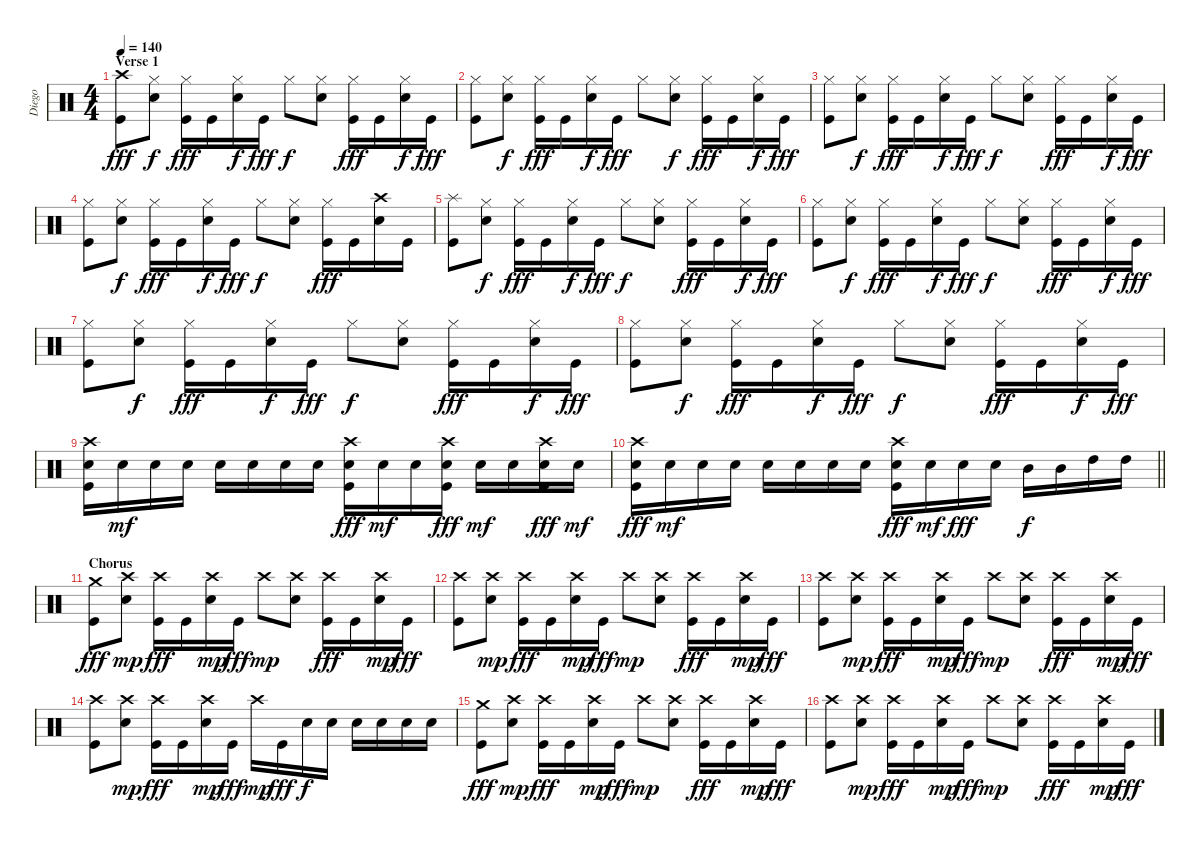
\track ("Diego" "Diego") {instrument percussion}
\staff {score}
\articulation defaults
\ts (4 4)
\section ("" "Verse 1")
\tempo 140
\clef neutral
\ks c
("Crash high (hit)" "Kick (hit)").8{dy fff} ("Hi-Hat (closed)" "Snare (hit) 2").8{dy f} ("Hi-Hat (closed)" "Kick (hit)").16{dy fff} "Kick (hit)".16 ("Hi-Hat (closed)" "Snare (hit) 2").16{dy f} "Kick (hit)".16{dy fff} "Hi-Hat (closed)".8{dy f} ("Hi-Hat (closed)" "Snare (hit) 2").8 ("Hi-Hat (closed)" "Kick (hit)").16{dy fff} "Kick (hit)".16 ("Hi-Hat (closed)" "Snare (hit) 2").16{dy f} "Kick (hit)".16{dy fff} |
("Hi-Hat (closed)" "Kick (hit)").8 ("Hi-Hat (closed)" "Snare (hit) 2").8{dy f} ("Hi-Hat (closed)" "Kick (hit)").16{dy fff} "Kick (hit)".16 ("Hi-Hat (closed)" "Snare (hit) 2").16{dy f} "Kick (hit)".16{dy fff} "Hi-Hat (closed)".8 ("Hi-Hat (closed)" "Snare (hit) 2").8{dy f} ("Hi-Hat (closed)" "Kick (hit)").16{dy fff} "Kick (hit)".16 ("Hi-Hat (closed)" "Snare (hit) 2").16{dy f} "Kick (hit)".16{dy fff} |
("Hi-Hat (closed)" "Kick (hit)").8 ("Hi-Hat (closed)" "Snare (hit) 2").8{dy f} ("Hi-Hat (closed)" "Kick (hit)").16{dy fff} "Kick (hit)".16 ("Hi-Hat (closed)" "Snare (hit) 2").16{dy f} "Kick (hit)".16{dy fff} "Hi-Hat (closed)".8{dy f} ("Hi-Hat (closed)" "Snare (hit) 2").8 ("Hi-Hat (closed)" "Kick (hit)").16{dy fff} "Kick (hit)".16 ("Hi-Hat (closed)" "Snare (hit) 2").16{dy f} "Kick (hit)".16{dy fff} |
("Hi-Hat (closed)" "Kick (hit)").8 ("Hi-Hat (closed)" "Snare (hit) 2").8{dy f} ("Hi-Hat (closed)" "Kick (hit)").16{dy fff} "Kick (hit)".16 ("Hi-Hat (closed)" "Snare (hit) 2").16{dy f} "Kick (hit)".16{dy fff} "Hi-Hat (closed)".8{dy f} ("Hi-Hat (closed)" "Snare (hit) 2").8 ("Hi-Hat (closed)" "Kick (hit)").16{dy fff} "Kick (hit)".16 ("Crash high (hit)" "Snare (hit) 2").16 "Kick (hit)".16 |
("Splash (hit)" "Kick (hit)").8 ("Hi-Hat (closed)" "Snare (hit) 2").8{dy f} ("Hi-Hat (closed)" "Kick (hit)").16{dy fff} "Kick (hit)".16 ("Hi-Hat (closed)" "Snare (hit) 2").16{dy f} "Kick (hit)".16{dy fff} "Hi-Hat (closed)".8{dy f} ("Hi-Hat (closed)" "Snare (hit) 2").8 ("Hi-Hat (closed)" "Kick (hit)").16{dy fff} "Kick (hit)".16 ("Hi-Hat (closed)" "Snare (hit) 2").16{dy f} "Kick (hit)".16{dy fff} |
("Hi-Hat (closed)" "Kick (hit)").8 ("Hi-Hat (closed)" "Snare (hit) 2").8{dy f} ("Hi-Hat (closed)" "Kick (hit)").16{dy fff} "Kick (hit)".16 ("Hi-Hat (closed)" "Snare (hit) 2").16{dy f} "Kick (hit)".16{dy fff} "Hi-Hat (closed)".8{dy f} ("Hi-Hat (closed)" "Snare (hit) 2").8 ("Hi-Hat (closed)" "Kick (hit)").16{dy fff} "Kick (hit)".16 ("Hi-Hat (closed)" "Snare (hit) 2").16{dy f} "Kick (hit)".16{dy fff} |
("Hi-Hat (closed)" "Kick (hit)").8 ("Hi-Hat (closed)" "Snare (hit) 2").8{dy f} ("Hi-Hat (closed)" "Kick (hit)").16{dy fff} "Kick (hit)".16 ("Hi-Hat (closed)" "Snare (hit) 2").16{dy f} "Kick (hit)".16{dy fff} "Hi-Hat (closed)".8{dy f} ("Hi-Hat (closed)" "Snare (hit) 2").8 ("Hi-Hat (closed)" "Kick (hit)").16{dy fff} "Kick (hit)".16 ("Hi-Hat (closed)" "Snare (hit) 2").16{dy f} "Kick (hit)".16{dy fff} |
("Hi-Hat (closed)" "Kick (hit)").8 ("Hi-Hat (closed)" "Snare (hit) 2").8{dy f} ("Hi-Hat (closed)" "Kick (hit)").16{dy fff} "Kick (hit)".16 ("Hi-Hat (closed)" "Snare (hit) 2").16{dy f} "Kick (hit)".16{dy fff} "Hi-Hat (closed)".8{dy f} ("Hi-Hat (closed)" "Snare (hit) 2").8 ("Hi-Hat (closed)" "Kick (hit)").16{dy fff} "Kick (hit)".16 ("Hi-Hat (closed)" "Snare (hit) 2").16{dy f} "Kick (hit)".16{dy fff} |
("Crash high (hit)" "Snare (hit) 2" "Kick (hit)").16 "Snare (hit) 2".16{dy mf} "Snare (hit) 2".16 "Snare (hit) 2".16 "Snare (hit) 2".16 "Snare (hit) 2".16 "Snare (hit) 2".16 "Snare (hit) 2".16 ("Crash high (hit)" "Snare (hit) 2" "Kick (hit)").16{dy fff} "Snare (hit) 2".16{dy mf} "Snare (hit) 2".16 ("Crash high (hit)" "Snare (hit) 2" "Kick (hit)").16{dy fff} "Snare (hit) 2".16{dy mf} "Snare (hit) 2".16 ("Crash high (hit)" "Snare (hit) 2" "Kick (hit)").16{dy fff} "Snare (hit) 2".16{dy mf} |
\barLineRight lightlight
("Crash high (hit)" "Snare (hit) 2" "Kick (hit)").16{dy fff} "Snare (hit) 2".16{dy mf} "Snare (hit) 2".16 "Snare (hit) 2".16 "Snare (hit) 2".16 "Snare (hit) 2".16 "Snare (hit) 2".16 "Snare (hit) 2".16 ("Crash high (hit)" "Snare (hit) 2" "Kick (hit)").16{dy fff} "Snare (hit) 2".16{dy mf} "Snare (hit) 2".16{dy fff} "Snare (hit) 2".16 "Mid Tom (hit)".16{dy f} "Mid Tom (hit)".16 "High Tom (hit)".16 "High Tom (hit)".16 |
\section ("" "Chorus")
("Crash medium (hit)" "Kick (hit)").8{dy fff} ("Crash high (hit)" "Snare (hit) 2").8{dy mp} ("Crash high (hit)" "Kick (hit)").16{dy fff} "Kick (hit)".16 ("Crash high (hit)" "Snare (hit) 2").16{dy mp} "Kick (hit)".16{dy fff} "Crash high (hit)".8{dy mp} ("Crash high (hit)" "Snare (hit) 2").8 ("Crash high (hit)" "Kick (hit)").16{dy fff} "Kick (hit)".16 ("Crash high (hit)" "Snare (hit) 2").16{dy mp} "Kick (hit)".16{dy fff} |
("Crash high (hit)" "Kick (hit)").8 ("Crash high (hit)" "Snare (hit) 2").8{dy mp} ("Crash high (hit)" "Kick (hit)").16{dy fff} "Kick (hit)".16 ("Crash high (hit)" "Snare (hit) 2").16{dy mp} "Kick (hit)".16{dy fff} "Crash high (hit)".8{dy mp} ("Crash high (hit)" "Snare (hit) 2").8 ("Crash high (hit)" "Kick (hit)").16{dy fff} "Kick (hit)".16 ("Crash high (hit)" "Snare (hit) 2").16{dy mp} "Kick (hit)".16{dy fff} |
("Crash high (hit)" "Kick (hit)").8 ("Crash high (hit)" "Snare (hit) 2").8{dy mp} ("Crash high (hit)" "Kick (hit)").16{dy fff} "Kick (hit)".16 ("Crash high (hit)" "Snare (hit) 2").16{dy mp} "Kick (hit)".16{dy fff} "Crash high (hit)".8{dy mp} ("Crash high (hit)" "Snare (hit) 2").8 ("Crash high (hit)" "Kick (hit)").16{dy fff} "Kick (hit)".16 ("Crash high (hit)" "Snare (hit) 2").16{dy mp} "Kick (hit)".16{dy fff} |
("Crash high (hit)" "Kick (hit)").8 ("Crash high (hit)" "Snare (hit) 2").8{dy mp} ("Crash high (hit)" "Kick (hit)").16{dy fff} "Kick (hit)".16 ("Crash high (hit)" "Snare (hit) 2").16{dy mp} "Kick (hit)".16{dy fff} "Crash high (hit)".16{dy mp} "Kick (hit)".16{dy fff} "Snare (hit) 2".16{dy f} "Snare (hit) 2".16 "Snare (hit) 2".16 "Snare (hit) 2".16 "Snare (hit) 2".16 "Snare (hit) 2".16 |
("Crash medium (hit)" "Kick (hit)").8{dy fff} ("Crash high (hit)" "Snare (hit) 2").8{dy mp} ("Crash high (hit)" "Kick (hit)").16{dy fff} "Kick (hit)".16 ("Crash high (hit)" "Snare (hit) 2").16{dy mp} "Kick (hit)".16{dy fff} "Crash high (hit)".8{dy mp} ("Crash high (hit)" "Snare (hit) 2").8 ("Crash high (hit)" "Kick (hit)").16{dy fff} "Kick (hit)".16 ("Crash high (hit)" "Snare (hit) 2").16{dy mp} "Kick (hit)".16{dy fff} |
("Crash high (hit)" "Kick (hit)").8 ("Crash high (hit)" "Snare (hit) 2").8{dy mp} ("Crash high (hit)" "Kick (hit)").16{dy fff} "Kick (hit)".16 ("Crash high (hit)" "Snare (hit) 2").16{dy mp} "Kick (hit)".16{dy fff} "Crash high (hit)".8{dy mp} ("Crash high (hit)" "Snare (hit) 2").8 ("Crash high (hit)" "Kick (hit)").16{dy fff} "Kick (hit)".16 ("Crash high (hit)" "Snare (hit) 2").16{dy mp} "Kick (hit)".16{dy fff}
